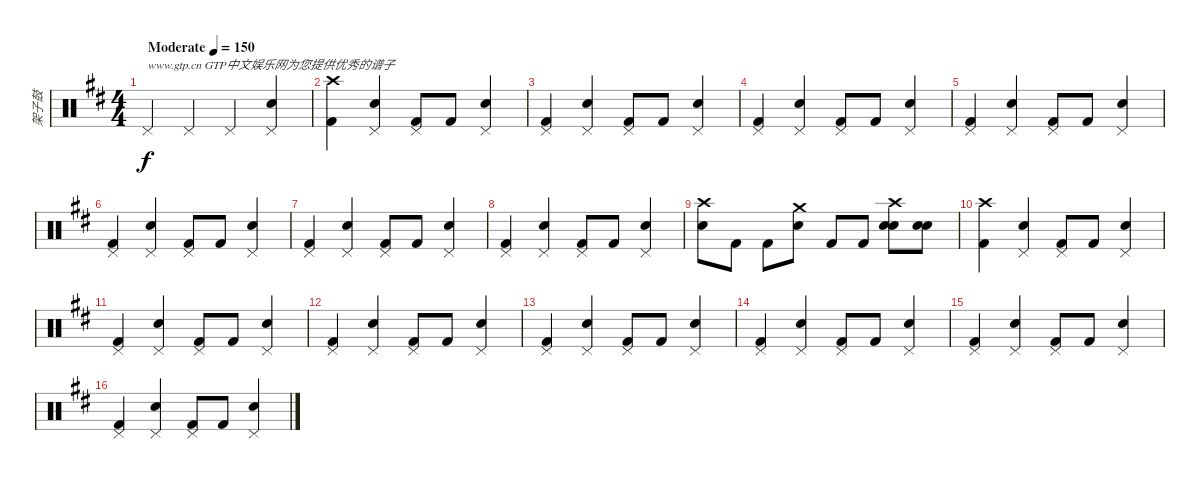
\track ("架子鼓" "架子鼓") {instrument percussion}
\staff {score}
\articulation defaults
\ts (4 4)
\tempo (150 "Moderate")
\clef neutral
\ks bminor "Pedal Hi-Hat (hit)".4{txt "www.gtp.cn GTP中文娱乐网为您提供优秀的谱子" dy f} "Pedal Hi-Hat (hit)".4 "Pedal Hi-Hat (hit)".4
("Pedal Hi-Hat (hit)" "Snare (hit) 2").4 |
("Crash high (hit)" "Kick (hit) 2").4 ("Pedal Hi-Hat (hit)" "Snare (hit) 2").4 ("Pedal Hi-Hat (hit)" "Kick (hit) 2").8 "Kick (hit) 2".8 ("Pedal Hi-Hat (hit)" "Snare (hit) 2").4 |
("Pedal Hi-Hat (hit)" "Kick (hit) 2").4 ("Pedal Hi-Hat (hit)" "Snare (hit) 2").4 ("Pedal Hi-Hat (hit)" "Kick (hit) 2").8 "Kick (hit) 2".8 ("Pedal Hi-Hat (hit)" "Snare (hit) 2").4 |
("Pedal Hi-Hat (hit)" "Kick (hit) 2").4 ("Pedal Hi-Hat (hit)" "Snare (hit) 2").4 ("Pedal Hi-Hat (hit)" "Kick (hit) 2").8 "Kick (hit) 2".8 ("Pedal Hi-Hat (hit)" "Snare (hit) 2").4 |
("Pedal Hi-Hat (hit)" "Kick (hit) 2").4 ("Pedal Hi-Hat (hit)" "Snare (hit) 2").4 ("Pedal Hi-Hat (hit)" "Kick (hit) 2").8 "Kick (hit) 2".8 ("Pedal Hi-Hat (hit)" "Snare (hit) 2").4 |
("Pedal Hi-Hat (hit)" "Kick (hit) 2").4 ("Pedal Hi-Hat (hit)" "Snare (hit) 2").4 ("Pedal Hi-Hat (hit)" "Kick (hit) 2").8 "Kick (hit) 2".8 ("Pedal Hi-Hat (hit)" "Snare (hit) 2").4 |
("Pedal Hi-Hat (hit)" "Kick (hit) 2").4 ("Pedal Hi-Hat (hit)" "Snare (hit) 2").4 ("Pedal Hi-Hat (hit)" "Kick (hit) 2").8 "Kick (hit) 2".8 ("Pedal Hi-Hat (hit)" "Snare (hit) 2").4 |
("Pedal Hi-Hat (hit)" "Kick (hit) 2").4 ("Pedal Hi-Hat (hit)" "Snare (hit) 2").4 ("Pedal Hi-Hat (hit)" "Kick (hit) 2").8 "Kick (hit) 2".8 ("Pedal Hi-Hat (hit)" "Snare (hit) 2").4 |
("Crash high (hit)" "Snare (hit) 2").8 "Kick (hit) 2".8 "Kick (hit) 2".8 ("Crash medium (hit)" "Snare (hit) 2").8 "Kick (hit) 2".8 "Kick (hit) 2".8 ("Crash high (hit)" "Snare (hit) 2" "Snare (hit) 2").8 ("Snare (hit) 2" "Snare (hit) 2").8 |
("Crash high (hit)" "Kick (hit) 2").4 ("Pedal Hi-Hat (hit)" "Snare (hit) 2").4 ("Pedal Hi-Hat (hit)" "Kick (hit) 2").8 "Kick (hit) 2".8 ("Pedal Hi-Hat (hit)" "Snare (hit) 2").4 |
("Pedal Hi-Hat (hit)" "Kick (hit) 2").4 ("Pedal Hi-Hat (hit)" "Snare (hit) 2").4 ("Pedal Hi-Hat (hit)" "Kick (hit) 2").8 "Kick (hit) 2".8 ("Pedal Hi-Hat (hit)" "Snare (hit) 2").4 |
("Pedal Hi-Hat (hit)" "Kick (hit) 2").4 ("Pedal Hi-Hat (hit)" "Snare (hit) 2").4 ("Pedal Hi-Hat (hit)" "Kick (hit) 2").8 "Kick (hit) 2".8 ("Pedal Hi-Hat (hit)" "Snare (hit) 2").4 |
("Pedal Hi-Hat (hit)" "Kick (hit) 2").4 ("Pedal Hi-Hat (hit)" "Snare (hit) 2").4 ("Pedal Hi-Hat (hit)" "Kick (hit) 2").8 "Kick (hit) 2".8 ("Pedal Hi-Hat (hit)" "Snare (hit) 2").4 |
("Pedal Hi-Hat (hit)" "Kick (hit) 2").4 ("Pedal Hi-Hat (hit)" "Snare (hit) 2").4 ("Pedal Hi-Hat (hit)" "Kick (hit) 2").8 "Kick (hit) 2".8 ("Pedal Hi-Hat (hit)" "Snare (hit) 2").4 |
("Pedal Hi-Hat (hit)" "Kick (hit) 2").4 ("Pedal Hi-Hat (hit)" "Snare (hit) 2").4 ("Pedal Hi-Hat (hit)" "Kick (hit) 2").8 "Kick (hit) 2".8 ("Pedal Hi-Hat (hit)" "Snare (hit) 2").4 |
("Pedal Hi-Hat (hit)" "Kick (hit) 2").4 ("Pedal Hi-Hat (hit)" "Snare (hit) 2").4 ("Pedal Hi-Hat (hit)" "Kick (hit) 2").8 "Kick (hit) 2".8 ("Pedal Hi-Hat (hit)" "Snare (hit) 2").4
